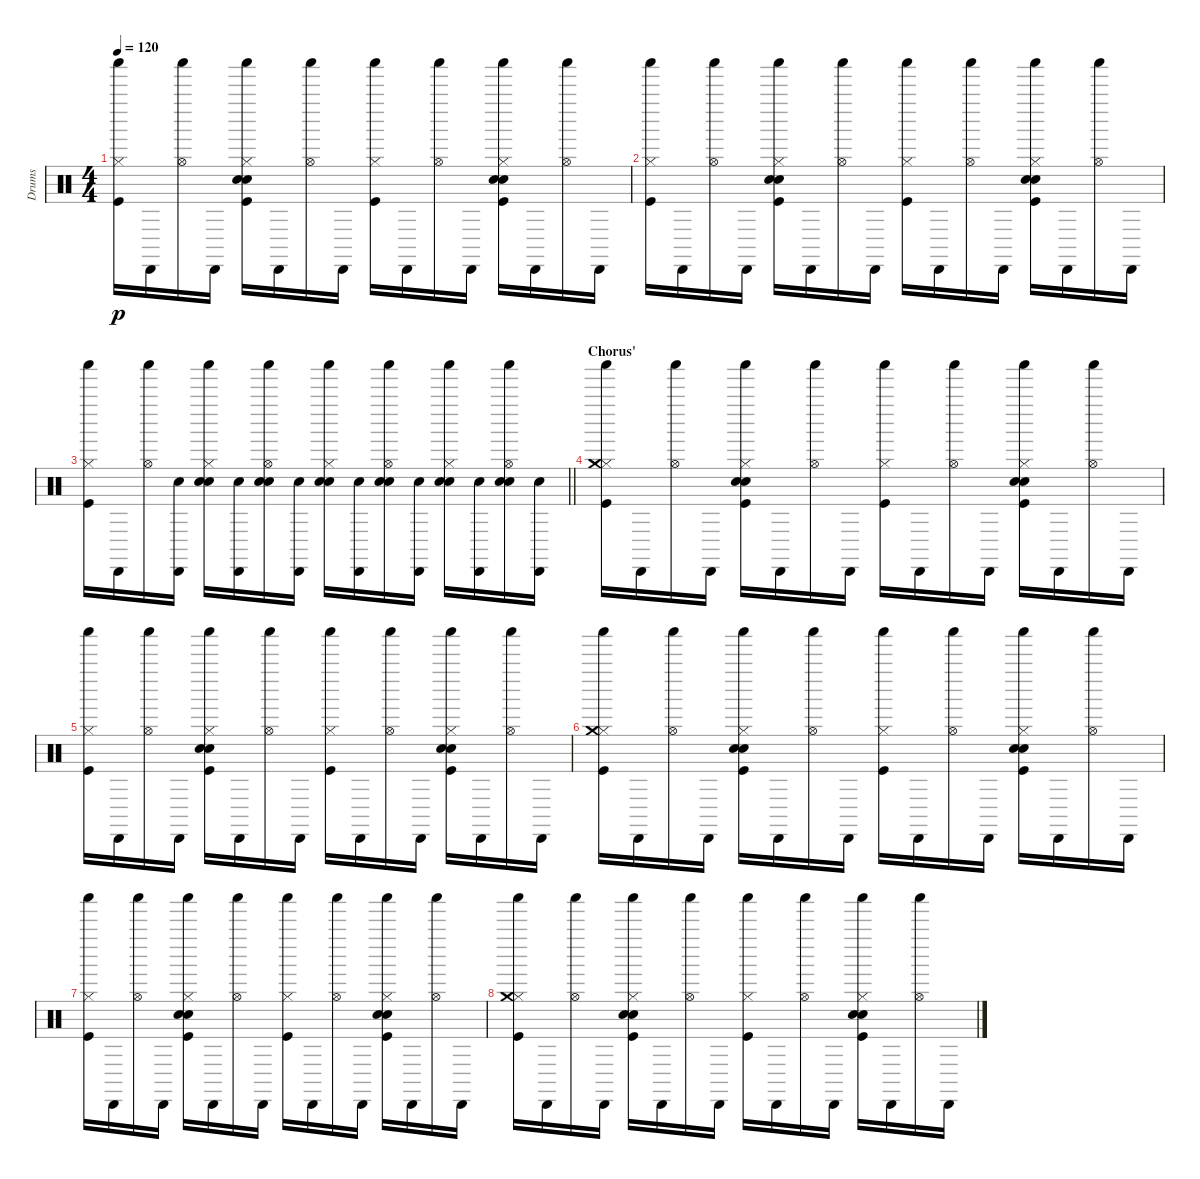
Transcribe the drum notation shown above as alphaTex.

\track ("Drums" "Drums") {instrument percussion}
\staff {score}
\articulation defaults
\ts (4 4)
\tempo 120
\clef neutral
\ks c
("Kick (hit)" "Hi-Hat (closed)" "Shaker (hit)").16{dy p} "Cabasa (hit)".16 ("Hi-Hat (open)" "Shaker (hit)").16 "Cabasa (hit)".16 ("Kick (hit)" "Snare (hit) 2" "Electric Snare (hit)" "Hi-Hat (closed)" "Shaker (hit)").16 "Cabasa (hit)".16 ("Hi-Hat (open)" "Shaker (hit)").16 "Cabasa (hit)".16 ("Kick (hit)" "Hi-Hat (closed)" "Shaker (hit)").16 "Cabasa (hit)".16 ("Hi-Hat (open)" "Shaker (hit)").16 "Cabasa (hit)".16 ("Kick (hit)" "Snare (hit) 2" "Electric Snare (hit)" "Hi-Hat (closed)" "Shaker (hit)").16 "Cabasa (hit)".16 ("Hi-Hat (open)" "Shaker (hit)").16 "Cabasa (hit)".16 |
("Kick (hit)" "Hi-Hat (closed)" "Shaker (hit)").16 "Cabasa (hit)".16 ("Hi-Hat (open)" "Shaker (hit)").16 "Cabasa (hit)".16 ("Kick (hit)" "Snare (hit) 2" "Electric Snare (hit)" "Hi-Hat (closed)" "Shaker (hit)").16 "Cabasa (hit)".16 ("Hi-Hat (open)" "Shaker (hit)").16 "Cabasa (hit)".16 ("Kick (hit)" "Hi-Hat (closed)" "Shaker (hit)").16 "Cabasa (hit)".16 ("Hi-Hat (open)" "Shaker (hit)").16 "Cabasa (hit)".16 ("Kick (hit)" "Snare (hit) 2" "Electric Snare (hit)" "Hi-Hat (closed)" "Shaker (hit)").16 "Cabasa (hit)".16 ("Hi-Hat (open)" "Shaker (hit)").16 "Cabasa (hit)".16 |
\barLineRight lightlight
("Kick (hit)" "Hi-Hat (closed)" "Shaker (hit)").16 "Cabasa (hit)".16 ("Hi-Hat (open)" "Shaker (hit)").16 ("Snare (hit) 2" "Cabasa (hit)").16 ("Snare (hit) 2" "Electric Snare (hit)" "Hi-Hat (closed)" "Shaker (hit)").16 ("Snare (hit) 2" "Cabasa (hit)").16 ("Snare (hit) 2" "Electric Snare (hit)" "Hi-Hat (open)" "Shaker (hit)").16 ("Snare (hit) 2" "Cabasa (hit)").16 ("Snare (hit) 2" "Electric Snare (hit)" "Hi-Hat (closed)" "Shaker (hit)").16 ("Snare (hit) 2" "Cabasa (hit)").16 ("Snare (hit) 2" "Electric Snare (hit)" "Hi-Hat (open)" "Shaker (hit)").16 ("Snare (hit) 2" "Cabasa (hit)").16 ("Snare (hit) 2" "Electric Snare (hit)" "Hi-Hat (closed)" "Shaker (hit)").16 ("Snare (hit) 2" "Cabasa (hit)").16 ("Snare (hit) 2" "Electric Snare (hit)" "Hi-Hat (open)" "Shaker (hit)").16 ("Snare (hit) 2" "Cabasa (hit)").16 |
\section ("" "Chorus'")
("Kick (hit)" "Hi-Hat (closed)" "Crash medium (hit)" "Shaker (hit)").16 "Cabasa (hit)".16 ("Hi-Hat (open)" "Shaker (hit)").16 "Cabasa (hit)".16 ("Kick (hit)" "Snare (hit) 2" "Electric Snare (hit)" "Hi-Hat (closed)" "Shaker (hit)").16 "Cabasa (hit)".16 ("Hi-Hat (open)" "Shaker (hit)").16 "Cabasa (hit)".16 ("Kick (hit)" "Hi-Hat (closed)" "Shaker (hit)").16 "Cabasa (hit)".16 ("Hi-Hat (open)" "Shaker (hit)").16 "Cabasa (hit)".16 ("Kick (hit)" "Snare (hit) 2" "Electric Snare (hit)" "Hi-Hat (closed)" "Shaker (hit)").16 "Cabasa (hit)".16 ("Hi-Hat (open)" "Shaker (hit)").16 "Cabasa (hit)".16 |
("Kick (hit)" "Hi-Hat (closed)" "Shaker (hit)").16 "Cabasa (hit)".16 ("Hi-Hat (open)" "Shaker (hit)").16 "Cabasa (hit)".16 ("Kick (hit)" "Snare (hit) 2" "Electric Snare (hit)" "Hi-Hat (closed)" "Shaker (hit)").16 "Cabasa (hit)".16 ("Hi-Hat (open)" "Shaker (hit)").16 "Cabasa (hit)".16 ("Kick (hit)" "Hi-Hat (closed)" "Shaker (hit)").16 "Cabasa (hit)".16 ("Hi-Hat (open)" "Shaker (hit)").16 "Cabasa (hit)".16 ("Kick (hit)" "Snare (hit) 2" "Electric Snare (hit)" "Hi-Hat (closed)" "Shaker (hit)").16 "Cabasa (hit)".16 ("Hi-Hat (open)" "Shaker (hit)").16 "Cabasa (hit)".16 |
("Kick (hit)" "Hi-Hat (closed)" "Crash medium (hit)" "Shaker (hit)").16 "Cabasa (hit)".16 ("Hi-Hat (open)" "Shaker (hit)").16 "Cabasa (hit)".16 ("Kick (hit)" "Snare (hit) 2" "Electric Snare (hit)" "Hi-Hat (closed)" "Shaker (hit)").16 "Cabasa (hit)".16 ("Hi-Hat (open)" "Shaker (hit)").16 "Cabasa (hit)".16 ("Kick (hit)" "Hi-Hat (closed)" "Shaker (hit)").16 "Cabasa (hit)".16 ("Hi-Hat (open)" "Shaker (hit)").16 "Cabasa (hit)".16 ("Kick (hit)" "Snare (hit) 2" "Electric Snare (hit)" "Hi-Hat (closed)" "Shaker (hit)").16 "Cabasa (hit)".16 ("Hi-Hat (open)" "Shaker (hit)").16 "Cabasa (hit)".16 |
("Kick (hit)" "Hi-Hat (closed)" "Shaker (hit)").16 "Cabasa (hit)".16 ("Hi-Hat (open)" "Shaker (hit)").16 "Cabasa (hit)".16 ("Kick (hit)" "Snare (hit) 2" "Electric Snare (hit)" "Hi-Hat (closed)" "Shaker (hit)").16 "Cabasa (hit)".16 ("Hi-Hat (open)" "Shaker (hit)").16 "Cabasa (hit)".16 ("Kick (hit)" "Hi-Hat (closed)" "Shaker (hit)").16 "Cabasa (hit)".16 ("Hi-Hat (open)" "Shaker (hit)").16 "Cabasa (hit)".16 ("Kick (hit)" "Snare (hit) 2" "Electric Snare (hit)" "Hi-Hat (closed)" "Shaker (hit)").16 "Cabasa (hit)".16 ("Hi-Hat (open)" "Shaker (hit)").16 "Cabasa (hit)".16 |
("Kick (hit)" "Hi-Hat (closed)" "Crash medium (hit)" "Shaker (hit)").16 "Cabasa (hit)".16 ("Hi-Hat (open)" "Shaker (hit)").16 "Cabasa (hit)".16 ("Kick (hit)" "Snare (hit) 2" "Electric Snare (hit)" "Hi-Hat (closed)" "Shaker (hit)").16 "Cabasa (hit)".16 ("Hi-Hat (open)" "Shaker (hit)").16 "Cabasa (hit)".16 ("Kick (hit)" "Hi-Hat (closed)" "Shaker (hit)").16 "Cabasa (hit)".16 ("Hi-Hat (open)" "Shaker (hit)").16 "Cabasa (hit)".16 ("Kick (hit)" "Snare (hit) 2" "Electric Snare (hit)" "Hi-Hat (closed)" "Shaker (hit)").16 "Cabasa (hit)".16 ("Hi-Hat (open)" "Shaker (hit)").16 "Cabasa (hit)".16
